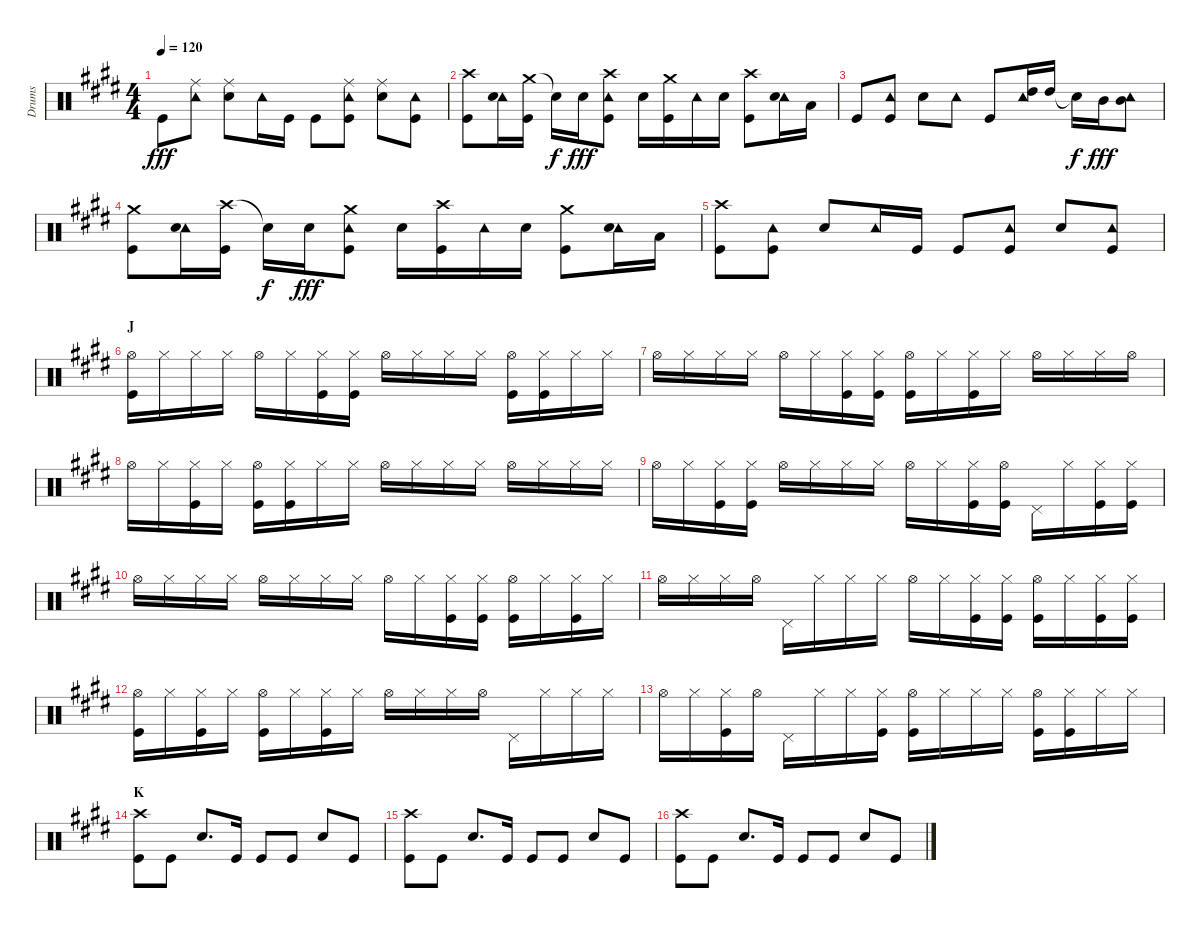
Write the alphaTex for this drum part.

\track ("Drums" "Drums") {instrument percussion}
\staff {score}
\articulation defaults
\ts (4 4)
\tempo 120
\clef neutral
\ks e "Kick (hit)".8{dy fff}
("Tambourine (hit)" "Ride (middle)").8 ("Ride (middle)" "Snare (hit) 2").8 "Tambourine (hit)".16 "Kick (hit)".16 "Kick (hit)".8 ("Tambourine (hit)" "Ride (middle)" "Kick (hit)").8 ("Ride (middle)" "Snare (hit) 2").8 ("Tambourine (hit)" "Kick (hit)").8 |
("Crash high (hit)" "Kick (hit)").8 ("Tambourine (hit)" "Snare (hit) 2").16 ("Crash medium (hit)" "Kick (hit)").16 "Snare (hit)"{t}.16{dy f} "Snare (hit) 2".16{dy fff} ("Tambourine (hit)" "Crash high (hit)" "Kick (hit)").8 "Snare (hit) 2".16 ("Crash medium (hit)" "Kick (hit)").16 "Tambourine (hit)".16 "Snare (hit) 2".16 ("Crash high (hit)" "Kick (hit)").8 ("Tambourine (hit)" "Snare (hit) 2").16 "Low Floor Tom (hit)".16 |
"Kick (hit)".8 ("Tambourine (hit)" "Kick (hit)").8 "Snare (hit) 2".8 "Tambourine (hit)".8 "Kick (hit)".8 ("Tambourine (hit)" "High Tom (hit)").16 "High Tom (hit)".16 "Snare (hit)"{t}.16{dy f} "Mid Tom (hit)".16{dy fff} ("Tambourine (hit)" "Mid Tom (hit)").8 |
("Crash medium (hit)" "Kick (hit)").8 ("Tambourine (hit)" "Snare (hit) 2").16 ("Crash high (hit)" "Kick (hit)").16 "Snare (hit)"{t}.16{dy f} "Snare (hit) 2".16{dy fff} ("Tambourine (hit)" "Crash medium (hit)" "Kick (hit)").8 "Snare (hit) 2".16 ("Crash high (hit)" "Kick (hit)").16 "Tambourine (hit)".16 "Snare (hit) 2".16 ("Crash medium (hit)" "Kick (hit)").8 ("Tambourine (hit)" "Snare (hit) 2").16 "Low Floor Tom (hit)".16 |
("Crash high (hit)" "Kick (hit)").8 ("Tambourine (hit)" "Kick (hit)").8 "Snare (hit) 2".8 "Tambourine (hit)".16 "Kick (hit)".16 "Kick (hit)".8 ("Tambourine (hit)" "Kick (hit)").8 "Snare (hit) 2".8 ("Tambourine (hit)" "Kick (hit)").8 |
\section ("" "J")
("Hi-Hat (open)" "Kick (hit)").16 "Hi-Hat (closed)".16 "Hi-Hat (closed)".16 "Hi-Hat (closed)".16 "Hi-Hat (open)".16 "Hi-Hat (closed)".16 ("Hi-Hat (closed)" "Kick (hit)").16 ("Hi-Hat (closed)" "Kick (hit)").16 "Hi-Hat (open)".16 "Hi-Hat (closed)".16 "Hi-Hat (closed)".16 "Hi-Hat (closed)".16 ("Hi-Hat (open)" "Kick (hit)").16 ("Hi-Hat (closed)" "Kick (hit)").16 "Hi-Hat (closed)".16 "Hi-Hat (closed)".16 |
"Hi-Hat (open)".16 "Hi-Hat (closed)".16 "Hi-Hat (closed)".16 "Hi-Hat (closed)".16 "Hi-Hat (open)".16 "Hi-Hat (closed)".16 ("Hi-Hat (closed)" "Kick (hit)").16 ("Hi-Hat (closed)" "Kick (hit)").16 ("Hi-Hat (open)" "Kick (hit)").16 "Hi-Hat (closed)".16 ("Hi-Hat (closed)" "Kick (hit)").16 "Hi-Hat (closed)".16 "Hi-Hat (open)".16 "Hi-Hat (closed)".16 "Hi-Hat (closed)".16 "Hi-Hat (open)".16 |
"Hi-Hat (open)".16 "Hi-Hat (closed)".16 ("Hi-Hat (closed)" "Kick (hit)").16 "Hi-Hat (closed)".16 ("Hi-Hat (open)" "Kick (hit)").16 ("Hi-Hat (closed)" "Kick (hit)").16 "Hi-Hat (closed)".16 "Hi-Hat (closed)".16 "Hi-Hat (open)".16 "Hi-Hat (closed)".16 "Hi-Hat (closed)".16 "Hi-Hat (closed)".16 "Hi-Hat (open)".16 "Hi-Hat (closed)".16 "Hi-Hat (closed)".16 "Hi-Hat (closed)".16 |
"Hi-Hat (open)".16 "Hi-Hat (closed)".16 ("Hi-Hat (closed)" "Kick (hit)").16 ("Hi-Hat (closed)" "Kick (hit)").16 "Hi-Hat (open)".16 "Hi-Hat (closed)".16 "Hi-Hat (closed)".16 "Hi-Hat (closed)".16 "Hi-Hat (open)".16 "Hi-Hat (closed)".16 ("Hi-Hat (closed)" "Kick (hit)").16 ("Hi-Hat (open)" "Kick (hit)").16 "Pedal Hi-Hat (hit)".16 "Hi-Hat (closed)".16 ("Hi-Hat (closed)" "Kick (hit)").16 ("Hi-Hat (closed)" "Kick (hit)").16 |
"Hi-Hat (open)".16 "Hi-Hat (closed)".16 "Hi-Hat (closed)".16 "Hi-Hat (closed)".16 "Hi-Hat (open)".16 "Hi-Hat (closed)".16 "Hi-Hat (closed)".16 "Hi-Hat (closed)".16 "Hi-Hat (open)".16 "Hi-Hat (closed)".16 ("Hi-Hat (closed)" "Kick (hit)").16 ("Hi-Hat (closed)" "Kick (hit)").16 ("Hi-Hat (open)" "Kick (hit)").16 "Hi-Hat (closed)".16 ("Hi-Hat (closed)" "Kick (hit)").16 "Hi-Hat (closed)".16 |
"Hi-Hat (open)".16 "Hi-Hat (closed)".16 "Hi-Hat (closed)".16 "Hi-Hat (open)".16 "Pedal Hi-Hat (hit)".16 "Hi-Hat (closed)".16 "Hi-Hat (closed)".16 "Hi-Hat (closed)".16 "Hi-Hat (open)".16 "Hi-Hat (closed)".16 ("Hi-Hat (closed)" "Kick (hit)").16 ("Hi-Hat (closed)" "Kick (hit)").16 ("Hi-Hat (open)" "Kick (hit)").16 "Hi-Hat (closed)".16 ("Hi-Hat (closed)" "Kick (hit)").16 ("Hi-Hat (closed)" "Kick (hit)").16 |
("Hi-Hat (open)" "Kick (hit)").16 "Hi-Hat (closed)".16 ("Hi-Hat (closed)" "Kick (hit)").16 "Hi-Hat (closed)".16 ("Hi-Hat (open)" "Kick (hit)").16 "Hi-Hat (closed)".16 ("Hi-Hat (closed)" "Kick (hit)").16 "Hi-Hat (closed)".16 "Hi-Hat (open)".16 "Hi-Hat (closed)".16 "Hi-Hat (closed)".16 "Hi-Hat (open)".16 "Pedal Hi-Hat (hit)".16 "Hi-Hat (closed)".16 "Hi-Hat (closed)".16 "Hi-Hat (closed)".16 |
"Hi-Hat (open)".16 "Hi-Hat (closed)".16 ("Hi-Hat (closed)" "Kick (hit)").16 "Hi-Hat (open)".16 "Pedal Hi-Hat (hit)".16 "Hi-Hat (closed)".16 "Hi-Hat (closed)".16 ("Hi-Hat (closed)" "Kick (hit)").16 ("Hi-Hat (open)" "Kick (hit)").16 "Hi-Hat (closed)".16 "Hi-Hat (closed)".16 "Hi-Hat (closed)".16 ("Hi-Hat (open)" "Kick (hit)").16 ("Hi-Hat (closed)" "Kick (hit)").16 "Hi-Hat (closed)".16 "Hi-Hat (closed)".16 |
\section ("" "K")
("Crash high (hit)" "Kick (hit)").8 "Kick (hit)".8 "Snare (hit) 2".8{d} "Kick (hit)".16 "Kick (hit)".8 "Kick (hit)".8 "Snare (hit) 2".8 "Kick (hit)".8 |
("Crash high (hit)" "Kick (hit)").8 "Kick (hit)".8 "Snare (hit) 2".8{d} "Kick (hit)".16 "Kick (hit)".8 "Kick (hit)".8 "Snare (hit) 2".8 "Kick (hit)".8 |
("Crash high (hit)" "Kick (hit)").8 "Kick (hit)".8 "Snare (hit) 2".8{d} "Kick (hit)".16 "Kick (hit)".8 "Kick (hit)".8 "Snare (hit) 2".8 "Kick (hit)".8
